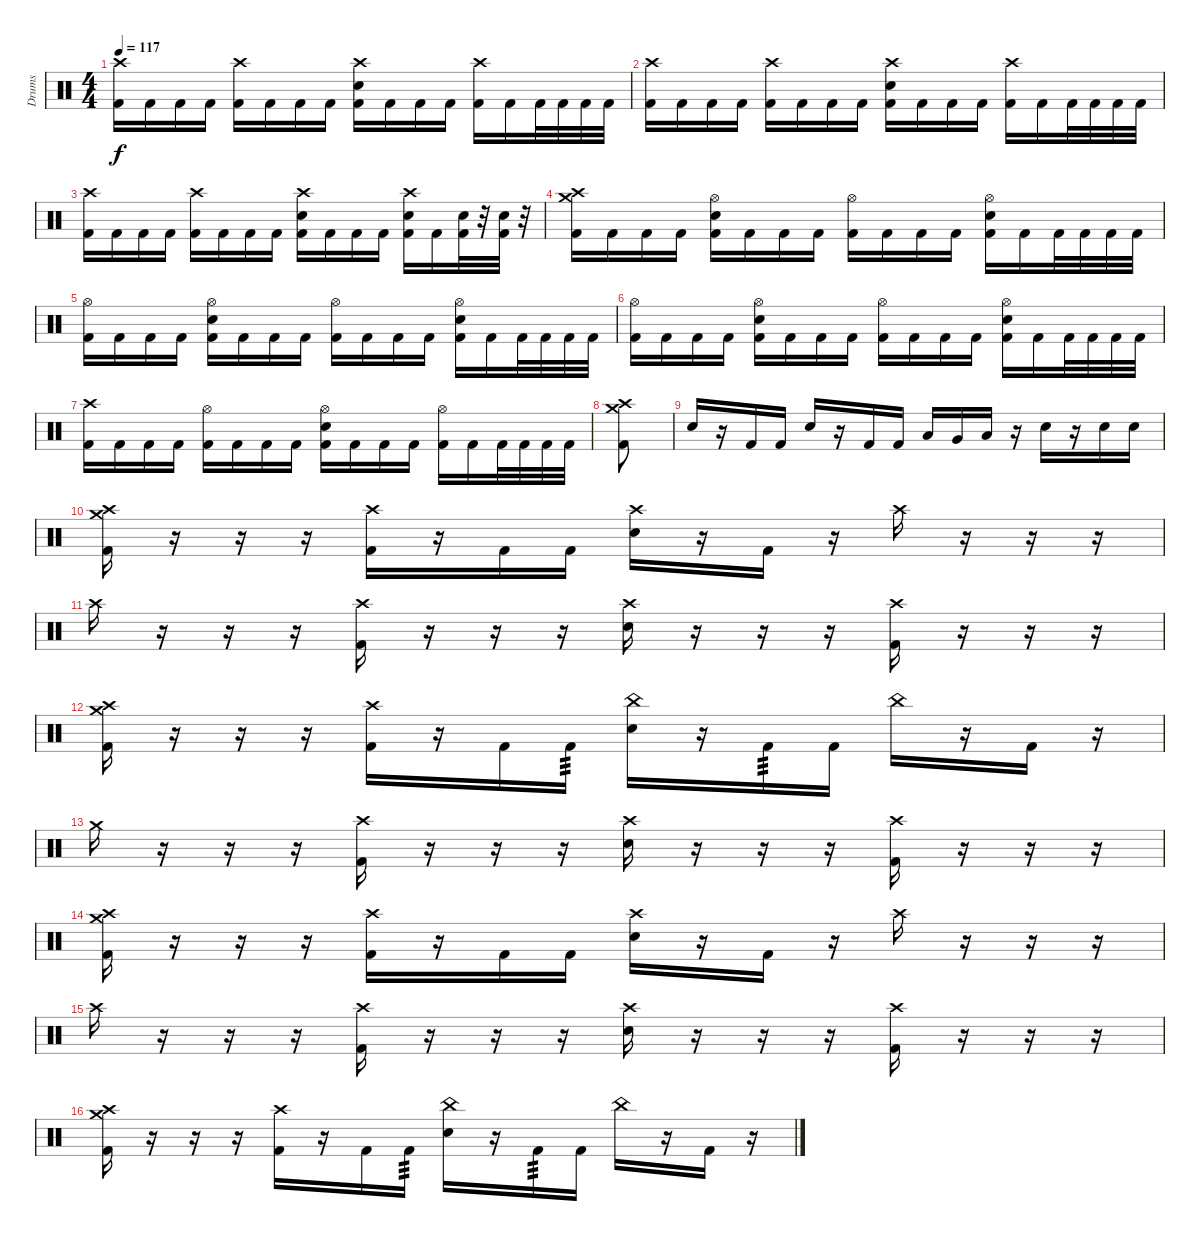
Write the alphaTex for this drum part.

\track ("Drums" "Drums") {instrument percussion}
\staff {score}
\articulation defaults
\ts (4 4)
\tempo 117
\clef neutral
\ks c
("Crash high (hit)" "Kick (hit) 2").16{dy f} "Kick (hit) 2".16 "Kick (hit) 2".16 "Kick (hit) 2".16 ("Crash high (hit)" "Kick (hit) 2").16 "Kick (hit) 2".16 "Kick (hit) 2".16 "Kick (hit) 2".16 ("Crash high (hit)" "Electric Snare (hit)" "Kick (hit) 2").16 "Kick (hit) 2".16 "Kick (hit) 2".16 "Kick (hit) 2".16 ("Crash high (hit)" "Kick (hit) 2").16 "Kick (hit) 2".16 "Kick (hit) 2".32 "Kick (hit) 2".32 "Kick (hit) 2".32 "Kick (hit) 2".32 |
("Crash high (hit)" "Kick (hit) 2").16 "Kick (hit) 2".16 "Kick (hit) 2".16 "Kick (hit) 2".16 ("Crash high (hit)" "Kick (hit) 2").16 "Kick (hit) 2".16 "Kick (hit) 2".16 "Kick (hit) 2".16 ("Crash high (hit)" "Electric Snare (hit)" "Kick (hit) 2").16 "Kick (hit) 2".16 "Kick (hit) 2".16 "Kick (hit) 2".16 ("Crash high (hit)" "Kick (hit) 2").16 "Kick (hit) 2".16 "Kick (hit) 2".32 "Kick (hit) 2".32 "Kick (hit) 2".32 "Kick (hit) 2".32 |
("Crash high (hit)" "Kick (hit) 2").16 "Kick (hit) 2".16 "Kick (hit) 2".16 "Kick (hit) 2".16 ("Crash high (hit)" "Kick (hit) 2").16 "Kick (hit) 2".16 "Kick (hit) 2".16 "Kick (hit) 2".16 ("Crash high (hit)" "Electric Snare (hit)" "Kick (hit) 2").16 "Kick (hit) 2".16 "Kick (hit) 2".16 "Kick (hit) 2".16 ("Crash high (hit)" "Electric Snare (hit)" "Kick (hit) 2").16 "Kick (hit) 2".16 ("Electric Snare (hit)" "Kick (hit) 2").32 r.32 ("Electric Snare (hit)" "Kick (hit) 2").32 r.32 |
("Crash medium (hit)" "Crash high (hit)" "Kick (hit) 2").16 "Kick (hit) 2".16 "Kick (hit) 2".16 "Kick (hit) 2".16 ("Hi-Hat (open)" "Electric Snare (hit)" "Kick (hit) 2").16 "Kick (hit) 2".16 "Kick (hit) 2".16 "Kick (hit) 2".16 ("Hi-Hat (open)" "Kick (hit) 2").16 "Kick (hit) 2".16 "Kick (hit) 2".16 "Kick (hit) 2".16 ("Hi-Hat (open)" "Electric Snare (hit)" "Kick (hit) 2").16 "Kick (hit) 2".16 "Kick (hit) 2".32 "Kick (hit) 2".32 "Kick (hit) 2".32 "Kick (hit) 2".32 |
("Hi-Hat (open)" "Kick (hit) 2").16 "Kick (hit) 2".16 "Kick (hit) 2".16 "Kick (hit) 2".16 ("Hi-Hat (open)" "Electric Snare (hit)" "Kick (hit) 2").16 "Kick (hit) 2".16 "Kick (hit) 2".16 "Kick (hit) 2".16 ("Hi-Hat (open)" "Kick (hit) 2").16 "Kick (hit) 2".16 "Kick (hit) 2".16 "Kick (hit) 2".16 ("Hi-Hat (open)" "Electric Snare (hit)" "Kick (hit) 2").16 "Kick (hit) 2".16 "Kick (hit) 2".32 "Kick (hit) 2".32 "Kick (hit) 2".32 "Kick (hit) 2".32 |
("Hi-Hat (open)" "Kick (hit) 2").16 "Kick (hit) 2".16 "Kick (hit) 2".16 "Kick (hit) 2".16 ("Hi-Hat (open)" "Electric Snare (hit)" "Kick (hit) 2").16 "Kick (hit) 2".16 "Kick (hit) 2".16 "Kick (hit) 2".16 ("Hi-Hat (open)" "Kick (hit) 2").16 "Kick (hit) 2".16 "Kick (hit) 2".16 "Kick (hit) 2".16 ("Hi-Hat (open)" "Electric Snare (hit)" "Kick (hit) 2").16 "Kick (hit) 2".16 "Kick (hit) 2".32 "Kick (hit) 2".32 "Kick (hit) 2".32 "Kick (hit) 2".32 |
("Crash high (hit)" "Kick (hit) 2").16 "Kick (hit) 2".16 "Kick (hit) 2".16 "Kick (hit) 2".16 ("Hi-Hat (open)" "Kick (hit) 2").16 "Kick (hit) 2".16 "Kick (hit) 2".16 "Kick (hit) 2".16 ("Hi-Hat (open)" "Electric Snare (hit)" "Kick (hit) 2").16 "Kick (hit) 2".16 "Kick (hit) 2".16 "Kick (hit) 2".16 ("Hi-Hat (open)" "Kick (hit) 2").16 "Kick (hit) 2".16 "Kick (hit) 2".32 "Kick (hit) 2".32 "Kick (hit) 2".32 "Kick (hit) 2".32 |
("Crash high (hit)" "Crash medium (hit)" "Kick (hit) 2").8 |
"Electric Snare (hit)".16 r.16 "Kick (hit) 2".16 "Kick (hit) 2".16 "Electric Snare (hit)".16 r.16 "Kick (hit) 2".16 "Kick (hit) 2".16 "Low Tom (hit)".16 "Very Low Tom (hit)".16 "Low Floor Tom (hit)".16 r.16 "Electric Snare (hit)".16 r.16 "Electric Snare (hit)".16 "Electric Snare (hit)".16 |
("Crash high (hit)" "Crash medium (hit)" "Kick (hit) 2").16 r.16 r.16 r.16 ("Crash high (hit)" "Kick (hit) 2").16 r.16 "Kick (hit) 2".16 "Kick (hit) 2".16 ("Crash high (hit)" "Electric Snare (hit)").16 r.16 "Kick (hit) 2".16 r.16 "Crash high (hit)".16 r.16 r.16 r.16 |
"Crash high (hit)".16 r.16 r.16 r.16 ("Crash high (hit)" "Kick (hit) 2").16 r.16 r.16 r.16 ("Crash high (hit)" "Electric Snare (hit)").16 r.16 r.16 r.16 ("Crash high (hit)" "Kick (hit) 2").16 r.16 r.16 r.16 |
("Crash high (hit)" "Crash medium (hit)" "Kick (hit) 2").16 r.16 r.16 r.16 ("Crash high (hit)" "Kick (hit) 2").16 r.16 "Kick (hit) 2".16 "Kick (hit) 2".16{tp 3} ("China (hit)" "Electric Snare (hit)").16 r.16 "Kick (hit) 2".16{tp 3} "Kick (hit) 2".16 "China (hit)".16 r.16 "Kick (hit) 2".16 r.16 |
"Crash medium (hit)".16 r.16 r.16 r.16 ("Crash high (hit)" "Kick (hit) 2").16 r.16 r.16 r.16 ("Crash high (hit)" "Electric Snare (hit)").16 r.16 r.16 r.16 ("Crash high (hit)" "Kick (hit) 2").16 r.16 r.16 r.16 |
("Crash high (hit)" "Crash medium (hit)" "Kick (hit) 2").16 r.16 r.16 r.16 ("Crash high (hit)" "Kick (hit) 2").16 r.16 "Kick (hit) 2".16 "Kick (hit) 2".16 ("Crash high (hit)" "Electric Snare (hit)").16 r.16 "Kick (hit) 2".16 r.16 "Crash high (hit)".16 r.16 r.16 r.16 |
"Crash high (hit)".16 r.16 r.16 r.16 ("Crash high (hit)" "Kick (hit) 2").16 r.16 r.16 r.16 ("Crash high (hit)" "Electric Snare (hit)").16 r.16 r.16 r.16 ("Crash high (hit)" "Kick (hit) 2").16 r.16 r.16 r.16 |
("Crash high (hit)" "Crash medium (hit)" "Kick (hit) 2").16 r.16 r.16 r.16 ("Crash high (hit)" "Kick (hit) 2").16 r.16 "Kick (hit) 2".16 "Kick (hit) 2".16{tp 3} ("China (hit)" "Electric Snare (hit)").16 r.16 "Kick (hit) 2".16{tp 3} "Kick (hit) 2".16 "China (hit)".16 r.16 "Kick (hit) 2".16 r.16
